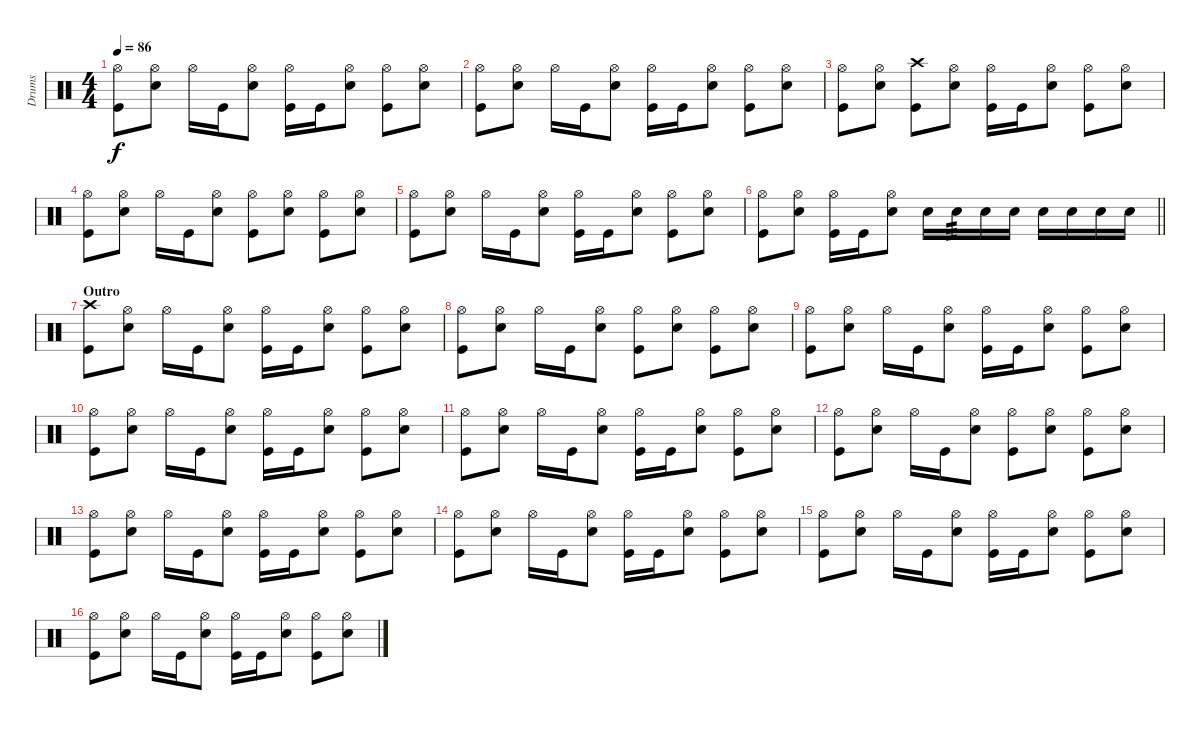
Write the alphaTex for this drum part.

\track ("Drums" "Drums") {instrument percussion}
\staff {score}
\articulation defaults
\ts (4 4)
\tempo 86
\clef neutral
\ks c
("Hi-Hat (open)" "Kick (hit)").8{dy f} ("Hi-Hat (open)" "Snare (hit) 2").8 "Hi-Hat (open)".16 "Kick (hit)".16 ("Hi-Hat (open)" "Snare (hit) 2").8 ("Hi-Hat (open)" "Kick (hit)").16 "Kick (hit)".16 ("Hi-Hat (open)" "Snare (hit) 2").8 ("Hi-Hat (open)" "Kick (hit)").8 ("Hi-Hat (open)" "Snare (hit) 2").8 |
("Hi-Hat (open)" "Kick (hit)").8 ("Hi-Hat (open)" "Snare (hit) 2").8 "Hi-Hat (open)".16 "Kick (hit)".16 ("Hi-Hat (open)" "Snare (hit) 2").8 ("Hi-Hat (open)" "Kick (hit)").16 "Kick (hit)".16 ("Hi-Hat (open)" "Snare (hit) 2").8 ("Hi-Hat (open)" "Kick (hit)").8 ("Hi-Hat (open)" "Snare (hit) 2").8 |
("Hi-Hat (open)" "Kick (hit)").8 ("Hi-Hat (open)" "Snare (hit) 2").8 ("Crash high (hit)" "Kick (hit)").8 ("Hi-Hat (open)" "Snare (hit) 2").8 ("Hi-Hat (open)" "Kick (hit)").16 "Kick (hit)".16 ("Hi-Hat (open)" "Snare (hit) 2").8 ("Hi-Hat (open)" "Kick (hit)").8 ("Hi-Hat (open)" "Snare (hit) 2").8 |
("Hi-Hat (open)" "Kick (hit)").8 ("Hi-Hat (open)" "Snare (hit) 2").8 "Hi-Hat (open)".16 "Kick (hit)".16 ("Hi-Hat (open)" "Snare (hit) 2").8 ("Hi-Hat (open)" "Kick (hit)").8 ("Hi-Hat (open)" "Snare (hit) 2").8 ("Hi-Hat (open)" "Kick (hit)").8 ("Hi-Hat (open)" "Snare (hit) 2").8 |
("Hi-Hat (open)" "Kick (hit)").8 ("Hi-Hat (open)" "Snare (hit) 2").8 "Hi-Hat (open)".16 "Kick (hit)".16 ("Hi-Hat (open)" "Snare (hit) 2").8 ("Hi-Hat (open)" "Kick (hit)").16 "Kick (hit)".16 ("Hi-Hat (open)" "Snare (hit) 2").8 ("Hi-Hat (open)" "Kick (hit)").8 ("Hi-Hat (open)" "Snare (hit) 2").8 |
\barLineRight lightlight
("Hi-Hat (open)" "Kick (hit)").8 ("Hi-Hat (open)" "Snare (hit) 2").8 ("Hi-Hat (open)" "Kick (hit)").16 "Kick (hit)".16 ("Hi-Hat (open)" "Snare (hit) 2").8 "Snare (hit) 2".16 "Snare (hit) 2".16{tp 3} "Snare (hit) 2".16 "Snare (hit) 2".16 "Snare (hit) 2".16 "Snare (hit) 2".16 "Snare (hit) 2".16 "Snare (hit) 2".16 |
\section ("" "Outro")
("Crash high (hit)" "Kick (hit)").8 ("Hi-Hat (open)" "Snare (hit) 2").8 "Hi-Hat (open)".16 "Kick (hit)".16 ("Hi-Hat (open)" "Snare (hit) 2").8 ("Hi-Hat (open)" "Kick (hit)").16 "Kick (hit)".16 ("Hi-Hat (open)" "Snare (hit) 2").8 ("Hi-Hat (open)" "Kick (hit)").8 ("Hi-Hat (open)" "Snare (hit) 2").8 |
("Hi-Hat (open)" "Kick (hit)").8 ("Hi-Hat (open)" "Snare (hit) 2").8 "Hi-Hat (open)".16 "Kick (hit)".16 ("Hi-Hat (open)" "Snare (hit) 2").8 ("Hi-Hat (open)" "Kick (hit)").8 ("Hi-Hat (open)" "Snare (hit) 2").8 ("Hi-Hat (open)" "Kick (hit)").8 ("Hi-Hat (open)" "Snare (hit) 2").8 |
("Hi-Hat (open)" "Kick (hit)").8 ("Hi-Hat (open)" "Snare (hit) 2").8 "Hi-Hat (open)".16 "Kick (hit)".16 ("Hi-Hat (open)" "Snare (hit) 2").8 ("Hi-Hat (open)" "Kick (hit)").16 "Kick (hit)".16 ("Hi-Hat (open)" "Snare (hit) 2").8 ("Hi-Hat (open)" "Kick (hit)").8 ("Hi-Hat (open)" "Snare (hit) 2").8 |
("Hi-Hat (open)" "Kick (hit)").8 ("Hi-Hat (open)" "Snare (hit) 2").8 "Hi-Hat (open)".16 "Kick (hit)".16 ("Hi-Hat (open)" "Snare (hit) 2").8 ("Hi-Hat (open)" "Kick (hit)").16 "Kick (hit)".16 ("Hi-Hat (open)" "Snare (hit) 2").8 ("Hi-Hat (open)" "Kick (hit)").8 ("Hi-Hat (open)" "Snare (hit) 2").8 |
("Hi-Hat (open)" "Kick (hit)").8 ("Hi-Hat (open)" "Snare (hit) 2").8 "Hi-Hat (open)".16 "Kick (hit)".16 ("Hi-Hat (open)" "Snare (hit) 2").8 ("Hi-Hat (open)" "Kick (hit)").16 "Kick (hit)".16 ("Hi-Hat (open)" "Snare (hit) 2").8 ("Hi-Hat (open)" "Kick (hit)").8 ("Hi-Hat (open)" "Snare (hit) 2").8 |
("Hi-Hat (open)" "Kick (hit)").8 ("Hi-Hat (open)" "Snare (hit) 2").8 "Hi-Hat (open)".16 "Kick (hit)".16 ("Hi-Hat (open)" "Snare (hit) 2").8 ("Hi-Hat (open)" "Kick (hit)").8 ("Hi-Hat (open)" "Snare (hit) 2").8 ("Hi-Hat (open)" "Kick (hit)").8 ("Hi-Hat (open)" "Snare (hit) 2").8 |
("Hi-Hat (open)" "Kick (hit)").8{volume 0} ("Hi-Hat (open)" "Snare (hit) 2").8 "Hi-Hat (open)".16 "Kick (hit)".16 ("Hi-Hat (open)" "Snare (hit) 2").8 ("Hi-Hat (open)" "Kick (hit)").16 "Kick (hit)".16 ("Hi-Hat (open)" "Snare (hit) 2").8 ("Hi-Hat (open)" "Kick (hit)").8 ("Hi-Hat (open)" "Snare (hit) 2").8 |
("Hi-Hat (open)" "Kick (hit)").8 ("Hi-Hat (open)" "Snare (hit) 2").8 "Hi-Hat (open)".16 "Kick (hit)".16 ("Hi-Hat (open)" "Snare (hit) 2").8 ("Hi-Hat (open)" "Kick (hit)").16 "Kick (hit)".16 ("Hi-Hat (open)" "Snare (hit) 2").8 ("Hi-Hat (open)" "Kick (hit)").8 ("Hi-Hat (open)" "Snare (hit) 2").8 |
("Hi-Hat (open)" "Kick (hit)").8 ("Hi-Hat (open)" "Snare (hit) 2").8 "Hi-Hat (open)".16 "Kick (hit)".16 ("Hi-Hat (open)" "Snare (hit) 2").8 ("Hi-Hat (open)" "Kick (hit)").16 "Kick (hit)".16 ("Hi-Hat (open)" "Snare (hit) 2").8 ("Hi-Hat (open)" "Kick (hit)").8 ("Hi-Hat (open)" "Snare (hit) 2").8 |
("Hi-Hat (open)" "Kick (hit)").8 ("Hi-Hat (open)" "Snare (hit) 2").8 "Hi-Hat (open)".16 "Kick (hit)".16 ("Hi-Hat (open)" "Snare (hit) 2").8 ("Hi-Hat (open)" "Kick (hit)").16 "Kick (hit)".16 ("Hi-Hat (open)" "Snare (hit) 2").8 ("Hi-Hat (open)" "Kick (hit)").8 ("Hi-Hat (open)" "Snare (hit) 2").8
